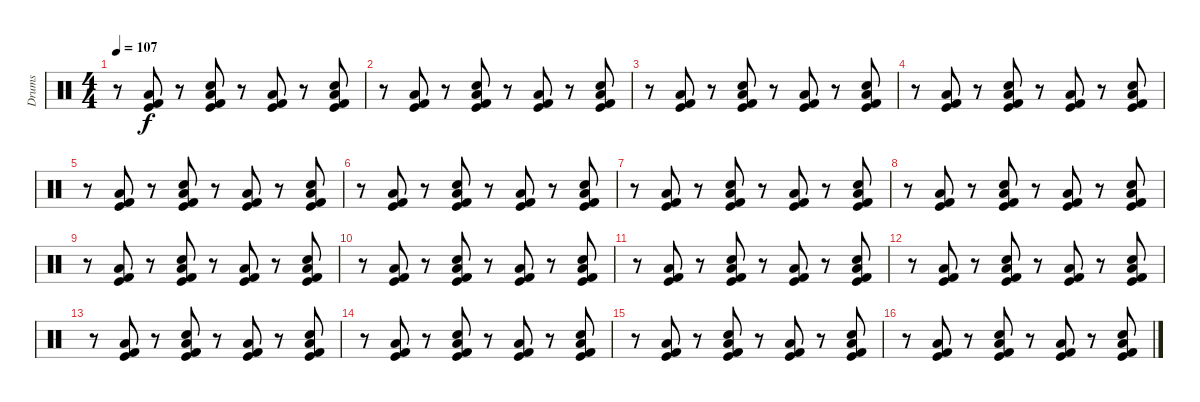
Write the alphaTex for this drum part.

\track ("Drums" "Drums") {instrument percussion}
\staff {score}
\articulation defaults
\ts (4 4)
\tempo 107
\clef neutral
\ks c
r.8{dy f volume 3} ("Kick (hit)" "Low Floor Tom (hit)" "Kick (hit) 2").8 r.8 ("Electric Snare (hit)" "Kick (hit)" "Low Floor Tom (hit)" "Kick (hit) 2").8 r.8 ("Kick (hit)" "Low Floor Tom (hit)" "Kick (hit) 2").8 r.8 ("Electric Snare (hit)" "Kick (hit)" "Low Floor Tom (hit)" "Kick (hit) 2").8 |
r.8 ("Kick (hit)" "Low Floor Tom (hit)" "Kick (hit) 2").8 r.8 ("Electric Snare (hit)" "Kick (hit)" "Low Floor Tom (hit)" "Kick (hit) 2").8 r.8 ("Kick (hit)" "Low Floor Tom (hit)" "Kick (hit) 2").8 r.8 ("Electric Snare (hit)" "Kick (hit)" "Low Floor Tom (hit)" "Kick (hit) 2").8 |
r.8 ("Kick (hit)" "Low Floor Tom (hit)" "Kick (hit) 2").8 r.8 ("Electric Snare (hit)" "Kick (hit)" "Low Floor Tom (hit)" "Kick (hit) 2").8 r.8 ("Kick (hit)" "Low Floor Tom (hit)" "Kick (hit) 2").8 r.8 ("Electric Snare (hit)" "Kick (hit)" "Low Floor Tom (hit)" "Kick (hit) 2").8 |
r.8 ("Kick (hit)" "Low Floor Tom (hit)" "Kick (hit) 2").8 r.8 ("Electric Snare (hit)" "Kick (hit)" "Low Floor Tom (hit)" "Kick (hit) 2").8 r.8 ("Kick (hit)" "Low Floor Tom (hit)" "Kick (hit) 2").8 r.8 ("Electric Snare (hit)" "Kick (hit)" "Low Floor Tom (hit)" "Kick (hit) 2").8 |
r.8 ("Kick (hit)" "Low Floor Tom (hit)" "Kick (hit) 2").8 r.8 ("Electric Snare (hit)" "Kick (hit)" "Low Floor Tom (hit)" "Kick (hit) 2").8 r.8 ("Kick (hit)" "Low Floor Tom (hit)" "Kick (hit) 2").8 r.8 ("Electric Snare (hit)" "Kick (hit)" "Low Floor Tom (hit)" "Kick (hit) 2").8 |
r.8 ("Kick (hit)" "Low Floor Tom (hit)" "Kick (hit) 2").8 r.8 ("Electric Snare (hit)" "Kick (hit)" "Low Floor Tom (hit)" "Kick (hit) 2").8 r.8 ("Kick (hit)" "Low Floor Tom (hit)" "Kick (hit) 2").8 r.8 ("Electric Snare (hit)" "Kick (hit)" "Low Floor Tom (hit)" "Kick (hit) 2").8 |
r.8 ("Kick (hit)" "Low Floor Tom (hit)" "Kick (hit) 2").8 r.8 ("Electric Snare (hit)" "Kick (hit)" "Low Floor Tom (hit)" "Kick (hit) 2").8 r.8 ("Kick (hit)" "Low Floor Tom (hit)" "Kick (hit) 2").8 r.8 ("Electric Snare (hit)" "Kick (hit)" "Low Floor Tom (hit)" "Kick (hit) 2").8 |
r.8 ("Kick (hit)" "Low Floor Tom (hit)" "Kick (hit) 2").8 r.8 ("Electric Snare (hit)" "Kick (hit)" "Low Floor Tom (hit)" "Kick (hit) 2").8 r.8 ("Kick (hit)" "Low Floor Tom (hit)" "Kick (hit) 2").8 r.8 ("Electric Snare (hit)" "Kick (hit)" "Low Floor Tom (hit)" "Kick (hit) 2").8 |
r.8{volume 16} ("Kick (hit)" "Low Floor Tom (hit)" "Kick (hit) 2").8 r.8 ("Electric Snare (hit)" "Kick (hit)" "Low Floor Tom (hit)" "Kick (hit) 2").8 r.8 ("Kick (hit)" "Low Floor Tom (hit)" "Kick (hit) 2").8 r.8 ("Electric Snare (hit)" "Kick (hit)" "Low Floor Tom (hit)" "Kick (hit) 2").8 |
r.8 ("Kick (hit)" "Low Floor Tom (hit)" "Kick (hit) 2").8 r.8 ("Electric Snare (hit)" "Kick (hit)" "Low Floor Tom (hit)" "Kick (hit) 2").8 r.8 ("Kick (hit)" "Low Floor Tom (hit)" "Kick (hit) 2").8 r.8 ("Electric Snare (hit)" "Kick (hit)" "Low Floor Tom (hit)" "Kick (hit) 2").8 |
r.8 ("Kick (hit)" "Low Floor Tom (hit)" "Kick (hit) 2").8 r.8 ("Electric Snare (hit)" "Kick (hit)" "Low Floor Tom (hit)" "Kick (hit) 2").8 r.8 ("Kick (hit)" "Low Floor Tom (hit)" "Kick (hit) 2").8 r.8 ("Electric Snare (hit)" "Kick (hit)" "Low Floor Tom (hit)" "Kick (hit) 2").8 |
r.8 ("Kick (hit)" "Low Floor Tom (hit)" "Kick (hit) 2").8 r.8 ("Electric Snare (hit)" "Kick (hit)" "Low Floor Tom (hit)" "Kick (hit) 2").8 r.8 ("Kick (hit)" "Low Floor Tom (hit)" "Kick (hit) 2").8 r.8 ("Electric Snare (hit)" "Kick (hit)" "Low Floor Tom (hit)" "Kick (hit) 2").8 |
r.8 ("Kick (hit)" "Low Floor Tom (hit)" "Kick (hit) 2").8 r.8 ("Electric Snare (hit)" "Kick (hit)" "Low Floor Tom (hit)" "Kick (hit) 2").8 r.8 ("Kick (hit)" "Low Floor Tom (hit)" "Kick (hit) 2").8 r.8 ("Electric Snare (hit)" "Kick (hit)" "Low Floor Tom (hit)" "Kick (hit) 2").8 |
r.8 ("Kick (hit)" "Low Floor Tom (hit)" "Kick (hit) 2").8 r.8 ("Electric Snare (hit)" "Kick (hit)" "Low Floor Tom (hit)" "Kick (hit) 2").8 r.8 ("Kick (hit)" "Low Floor Tom (hit)" "Kick (hit) 2").8 r.8 ("Electric Snare (hit)" "Kick (hit)" "Low Floor Tom (hit)" "Kick (hit) 2").8 |
r.8 ("Kick (hit)" "Low Floor Tom (hit)" "Kick (hit) 2").8 r.8 ("Electric Snare (hit)" "Kick (hit)" "Low Floor Tom (hit)" "Kick (hit) 2").8 r.8 ("Kick (hit)" "Low Floor Tom (hit)" "Kick (hit) 2").8 r.8 ("Electric Snare (hit)" "Kick (hit)" "Low Floor Tom (hit)" "Kick (hit) 2").8 |
r.8 ("Kick (hit)" "Low Floor Tom (hit)" "Kick (hit) 2").8 r.8 ("Electric Snare (hit)" "Kick (hit)" "Low Floor Tom (hit)" "Kick (hit) 2").8 r.8 ("Kick (hit)" "Low Floor Tom (hit)" "Kick (hit) 2").8 r.8 ("Electric Snare (hit)" "Kick (hit)" "Low Floor Tom (hit)" "Kick (hit) 2").8
